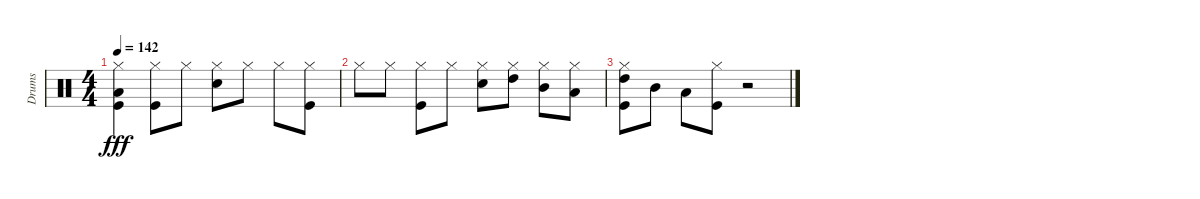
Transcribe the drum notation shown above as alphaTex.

\track ("Drums" "Drums") {instrument percussion}
\staff {score}
\articulation defaults
\ts (4 4)
\tempo 142
\clef neutral
\ks c
("Hi-Hat (closed)" "Low Tom (hit)" "Kick (hit)").4{dy fff} ("Hi-Hat (closed)" "Kick (hit)").8 "Hi-Hat (closed)".8 ("Hi-Hat (closed)" "Snare (hit) 2").8 "Hi-Hat (closed)".8 "Hi-Hat (closed)".8 ("Hi-Hat (closed)" "Kick (hit)").8 |
"Hi-Hat (closed)".8 "Hi-Hat (closed)".8 ("Hi-Hat (closed)" "Kick (hit)").8 "Hi-Hat (closed)".8 ("Hi-Hat (closed)" "Snare (hit) 2").8 ("Hi-Hat (closed)" "High Tom (hit)").8 ("Hi-Hat (closed)" "Mid Tom (hit)").8 ("Hi-Hat (closed)" "Low Tom (hit)").8 |
("Hi-Hat (closed)" "High Tom (hit)" "Kick (hit)").8 "Mid Tom (hit)".8 "Low Tom (hit)".8 ("Hi-Hat (closed)" "Kick (hit)").8 r.2
